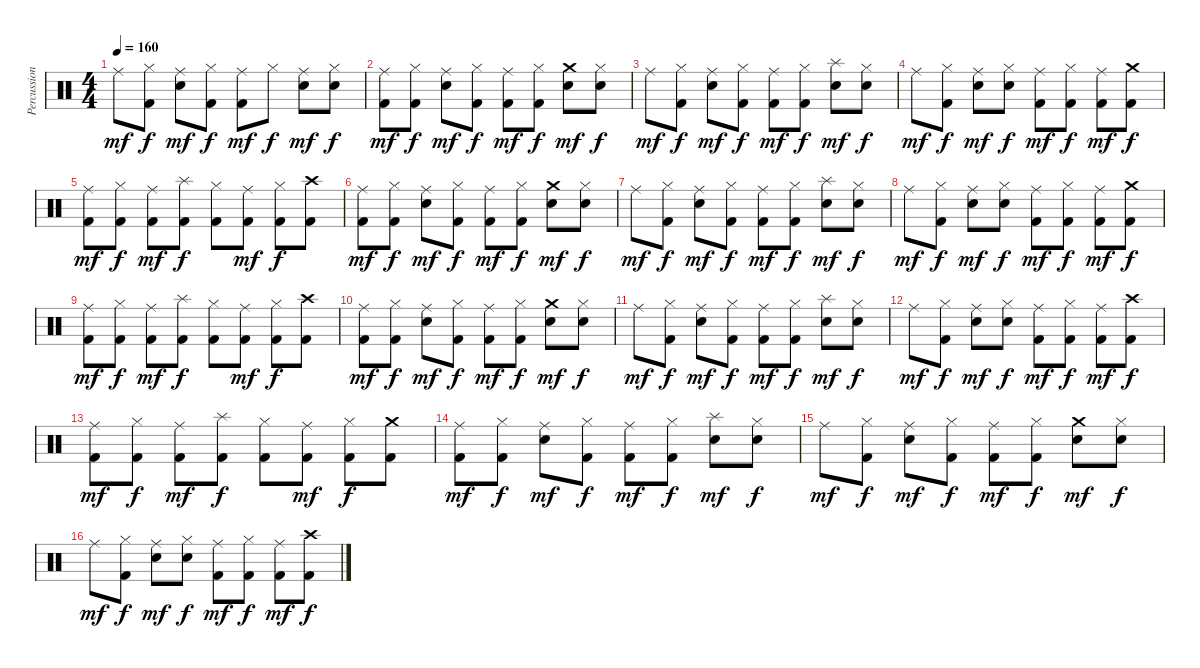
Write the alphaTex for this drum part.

\track ("Percussions" "Percussion") {instrument percussion}
\staff {score}
\articulation defaults
\ts (4 4)
\tempo 160
\clef neutral
\ks c "Ride (middle)".8{dy mf}
("Hi-Hat (closed)" "Kick (hit) 2").8{dy f} ("Ride (middle)" "Electric Snare (hit)").8{dy mf} ("Hi-Hat (closed)" "Kick (hit) 2").8{dy f} ("Ride (middle)" "Kick (hit) 2").8{dy mf} "Hi-Hat (closed)".8{dy f} ("Ride (middle)" "Electric Snare (hit)").8{dy mf} ("Hi-Hat (closed)" "Electric Snare (hit)").8{dy f} |
("Ride (middle)" "Kick (hit) 2").8{dy mf} ("Hi-Hat (closed)" "Kick (hit) 2").8{dy f} ("Ride (middle)" "Electric Snare (hit)").8{dy mf} ("Hi-Hat (closed)" "Kick (hit) 2").8{dy f} ("Ride (middle)" "Kick (hit) 2").8{dy mf} ("Hi-Hat (closed)" "Kick (hit) 2").8{dy f} ("Crash medium (hit)" "Electric Snare (hit)").8{dy mf} ("Hi-Hat (closed)" "Electric Snare (hit)").8{dy f} |
"Ride (middle)".8{dy mf} ("Hi-Hat (closed)" "Kick (hit) 2").8{dy f} ("Ride (middle)" "Electric Snare (hit)").8{dy mf} ("Hi-Hat (closed)" "Kick (hit) 2").8{dy f} ("Ride (middle)" "Kick (hit) 2").8{dy mf} ("Hi-Hat (closed)" "Kick (hit) 2").8{dy f} ("Splash (hit)" "Electric Snare (hit)").8{dy mf} ("Hi-Hat (closed)" "Electric Snare (hit)").8{dy f} |
"Ride (middle)".8{dy mf} ("Hi-Hat (closed)" "Kick (hit) 2").8{dy f} ("Ride (middle)" "Electric Snare (hit)").8{dy mf} ("Hi-Hat (closed)" "Electric Snare (hit)").8{dy f} ("Ride (middle)" "Kick (hit) 2").8{dy mf} ("Hi-Hat (closed)" "Kick (hit) 2").8{dy f} ("Ride (middle)" "Kick (hit) 2").8{dy mf} ("Crash medium (hit)" "Kick (hit) 2").8{dy f} |
("Ride (middle)" "Kick (hit) 2").8{dy mf} ("Hi-Hat (closed)" "Kick (hit) 2").8{dy f} ("Ride (middle)" "Kick (hit) 2").8{dy mf} ("Splash (hit)" "Kick (hit) 2").8{dy f} ("Hi-Hat (closed)" "Kick (hit) 2").8 ("Ride (middle)" "Kick (hit) 2").8{dy mf} ("Hi-Hat (closed)" "Kick (hit) 2").8{dy f} ("Crash high (hit)" "Kick (hit) 2").8 |
("Ride (middle)" "Kick (hit) 2").8{dy mf} ("Hi-Hat (closed)" "Kick (hit) 2").8{dy f} ("Ride (middle)" "Electric Snare (hit)").8{dy mf} ("Hi-Hat (closed)" "Kick (hit) 2").8{dy f} ("Ride (middle)" "Kick (hit) 2").8{dy mf} ("Hi-Hat (closed)" "Kick (hit) 2").8{dy f} ("Crash medium (hit)" "Electric Snare (hit)").8{dy mf} ("Hi-Hat (closed)" "Electric Snare (hit)").8{dy f} |
"Ride (middle)".8{dy mf} ("Hi-Hat (closed)" "Kick (hit) 2").8{dy f} ("Ride (middle)" "Electric Snare (hit)").8{dy mf} ("Hi-Hat (closed)" "Kick (hit) 2").8{dy f} ("Ride (middle)" "Kick (hit) 2").8{dy mf} ("Hi-Hat (closed)" "Kick (hit) 2").8{dy f} ("Splash (hit)" "Electric Snare (hit)").8{dy mf} ("Hi-Hat (closed)" "Electric Snare (hit)").8{dy f} |
"Ride (middle)".8{dy mf} ("Hi-Hat (closed)" "Kick (hit) 2").8{dy f} ("Ride (middle)" "Electric Snare (hit)").8{dy mf} ("Hi-Hat (closed)" "Electric Snare (hit)").8{dy f} ("Ride (middle)" "Kick (hit) 2").8{dy mf} ("Hi-Hat (closed)" "Kick (hit) 2").8{dy f} ("Ride (middle)" "Kick (hit) 2").8{dy mf} ("Crash medium (hit)" "Kick (hit) 2").8{dy f} |
("Ride (middle)" "Kick (hit) 2").8{dy mf} ("Hi-Hat (closed)" "Kick (hit) 2").8{dy f} ("Ride (middle)" "Kick (hit) 2").8{dy mf} ("Splash (hit)" "Kick (hit) 2").8{dy f} ("Hi-Hat (closed)" "Kick (hit) 2").8 ("Ride (middle)" "Kick (hit) 2").8{dy mf} ("Hi-Hat (closed)" "Kick (hit) 2").8{dy f} ("Crash high (hit)" "Kick (hit) 2").8 |
("Ride (middle)" "Kick (hit) 2").8{dy mf} ("Hi-Hat (closed)" "Kick (hit) 2").8{dy f} ("Ride (middle)" "Electric Snare (hit)").8{dy mf} ("Hi-Hat (closed)" "Kick (hit) 2").8{dy f} ("Ride (middle)" "Kick (hit) 2").8{dy mf} ("Hi-Hat (closed)" "Kick (hit) 2").8{dy f} ("Crash medium (hit)" "Electric Snare (hit)").8{dy mf} ("Hi-Hat (closed)" "Electric Snare (hit)").8{dy f} |
"Ride (middle)".8{dy mf} ("Hi-Hat (closed)" "Kick (hit) 2").8{dy f} ("Ride (middle)" "Electric Snare (hit)").8{dy mf} ("Hi-Hat (closed)" "Kick (hit) 2").8{dy f} ("Ride (middle)" "Kick (hit) 2").8{dy mf} ("Hi-Hat (closed)" "Kick (hit) 2").8{dy f} ("Splash (hit)" "Electric Snare (hit)").8{dy mf} ("Hi-Hat (closed)" "Electric Snare (hit)").8{dy f} |
"Ride (middle)".8{dy mf} ("Hi-Hat (closed)" "Kick (hit) 2").8{dy f} ("Ride (middle)" "Electric Snare (hit)").8{dy mf} ("Hi-Hat (closed)" "Electric Snare (hit)").8{dy f} ("Ride (middle)" "Kick (hit) 2").8{dy mf} ("Hi-Hat (closed)" "Kick (hit) 2").8{dy f} ("Ride (middle)" "Kick (hit) 2").8{dy mf} ("Crash high (hit)" "Kick (hit) 2").8{dy f} |
("Ride (middle)" "Kick (hit) 2").8{dy mf} ("Hi-Hat (closed)" "Kick (hit) 2").8{dy f} ("Ride (middle)" "Kick (hit) 2").8{dy mf} ("Splash (hit)" "Kick (hit) 2").8{dy f} ("Hi-Hat (closed)" "Kick (hit) 2").8 ("Ride (middle)" "Kick (hit) 2").8{dy mf} ("Hi-Hat (closed)" "Kick (hit) 2").8{dy f} ("Crash medium (hit)" "Kick (hit) 2").8 |
("Ride (middle)" "Kick (hit) 2").8{dy mf} ("Hi-Hat (closed)" "Kick (hit) 2").8{dy f} ("Ride (middle)" "Electric Snare (hit)").8{dy mf} ("Hi-Hat (closed)" "Kick (hit) 2").8{dy f} ("Ride (middle)" "Kick (hit) 2").8{dy mf} ("Hi-Hat (closed)" "Kick (hit) 2").8{dy f} ("Splash (hit)" "Electric Snare (hit)").8{dy mf} ("Hi-Hat (closed)" "Electric Snare (hit)").8{dy f} |
"Ride (middle)".8{dy mf} ("Hi-Hat (closed)" "Kick (hit) 2").8{dy f} ("Ride (middle)" "Electric Snare (hit)").8{dy mf} ("Hi-Hat (closed)" "Kick (hit) 2").8{dy f} ("Ride (middle)" "Kick (hit) 2").8{dy mf} ("Hi-Hat (closed)" "Kick (hit) 2").8{dy f} ("Crash medium (hit)" "Electric Snare (hit)").8{dy mf} ("Hi-Hat (closed)" "Electric Snare (hit)").8{dy f} |
"Ride (middle)".8{dy mf} ("Hi-Hat (closed)" "Kick (hit) 2").8{dy f} ("Ride (middle)" "Electric Snare (hit)").8{dy mf} ("Hi-Hat (closed)" "Electric Snare (hit)").8{dy f} ("Ride (middle)" "Kick (hit) 2").8{dy mf} ("Hi-Hat (closed)" "Kick (hit) 2").8{dy f} ("Ride (middle)" "Kick (hit) 2").8{dy mf} ("Crash high (hit)" "Kick (hit) 2").8{dy f}
